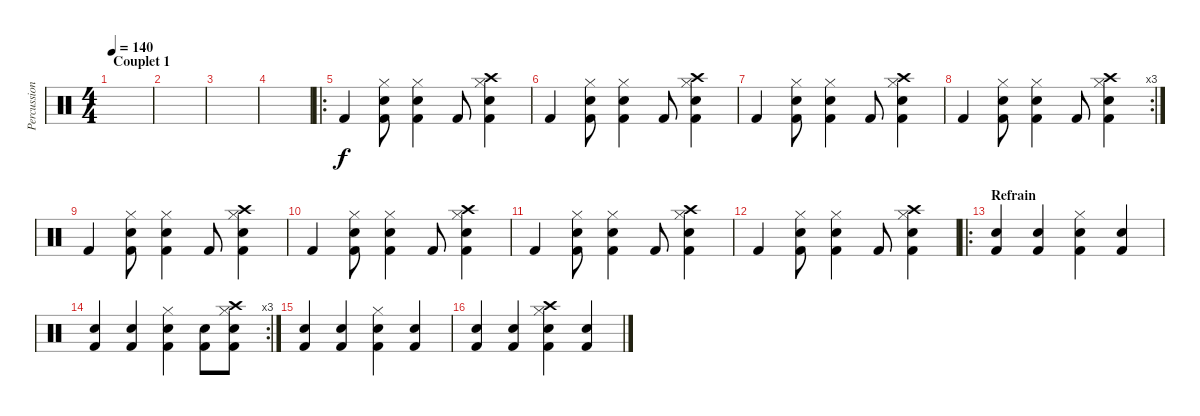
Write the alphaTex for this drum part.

\track ("Percussions" "Percussion") {instrument percussion}
\staff {score}
\articulation defaults
\ts (4 4)
\section ("" "Couplet 1")
\tempo 140
\clef neutral
\ks c
|
|
|
|
\ro "Kick (hit) 2".4
("Snare (hit) 2" "Kick (hit) 2" "Hi-Hat (closed)").8 ("Snare (hit) 2" "Kick (hit) 2" "Hi-Hat (closed)").4 "Kick (hit) 2".8 ("Snare (hit) 2" "Kick (hit) 2" "Hi-Hat (closed)" "Crash high (hit)").4 |
"Kick (hit) 2".4 ("Snare (hit) 2" "Kick (hit) 2" "Hi-Hat (closed)").8 ("Snare (hit) 2" "Kick (hit) 2" "Hi-Hat (closed)").4 "Kick (hit) 2".8 ("Snare (hit) 2" "Kick (hit) 2" "Hi-Hat (closed)" "Crash high (hit)").4 |
"Kick (hit) 2".4 ("Snare (hit) 2" "Kick (hit) 2" "Hi-Hat (closed)").8 ("Snare (hit) 2" "Kick (hit) 2" "Hi-Hat (closed)").4 "Kick (hit) 2".8 ("Snare (hit) 2" "Kick (hit) 2" "Hi-Hat (closed)" "Crash high (hit)").4 |
\rc 3 "Kick (hit) 2".4
("Snare (hit) 2" "Kick (hit) 2" "Hi-Hat (closed)").8 ("Snare (hit) 2" "Kick (hit) 2" "Hi-Hat (closed)").4 "Kick (hit) 2".8 ("Snare (hit) 2" "Kick (hit) 2" "Hi-Hat (closed)" "Crash high (hit)").4 |
"Kick (hit) 2".4 ("Snare (hit) 2" "Kick (hit) 2" "Hi-Hat (closed)").8 ("Snare (hit) 2" "Kick (hit) 2" "Hi-Hat (closed)").4 "Kick (hit) 2".8 ("Snare (hit) 2" "Kick (hit) 2" "Hi-Hat (closed)" "Crash high (hit)").4 |
"Kick (hit) 2".4 ("Snare (hit) 2" "Kick (hit) 2" "Hi-Hat (closed)").8 ("Snare (hit) 2" "Kick (hit) 2" "Hi-Hat (closed)").4 "Kick (hit) 2".8 ("Snare (hit) 2" "Kick (hit) 2" "Hi-Hat (closed)" "Crash high (hit)").4 |
"Kick (hit) 2".4 ("Snare (hit) 2" "Kick (hit) 2" "Hi-Hat (closed)").8 ("Snare (hit) 2" "Kick (hit) 2" "Hi-Hat (closed)").4 "Kick (hit) 2".8 ("Snare (hit) 2" "Kick (hit) 2" "Hi-Hat (closed)" "Crash high (hit)").4 |
"Kick (hit) 2".4 ("Snare (hit) 2" "Kick (hit) 2" "Hi-Hat (closed)").8 ("Snare (hit) 2" "Kick (hit) 2" "Hi-Hat (closed)").4 "Kick (hit) 2".8 ("Snare (hit) 2" "Kick (hit) 2" "Hi-Hat (closed)" "Crash high (hit)").4 |
\ro
\section ("" "Refrain")
("Snare (hit) 2" "Kick (hit) 2").4 ("Snare (hit) 2" "Kick (hit) 2").4 ("Snare (hit) 2" "Kick (hit) 2" "Hi-Hat (closed)").4 ("Snare (hit) 2" "Kick (hit) 2").4 |
\rc 3
("Snare (hit) 2" "Kick (hit) 2").4 ("Snare (hit) 2" "Kick (hit) 2").4 ("Snare (hit) 2" "Kick (hit) 2" "Hi-Hat (closed)").4 ("Snare (hit) 2" "Kick (hit) 2").8 ("Snare (hit) 2" "Kick (hit) 2" "Hi-Hat (closed)" "Crash high (hit)").8 |
("Snare (hit) 2" "Kick (hit) 2").4 ("Snare (hit) 2" "Kick (hit) 2").4 ("Snare (hit) 2" "Kick (hit) 2" "Hi-Hat (closed)").4 ("Snare (hit) 2" "Kick (hit) 2").4 |
("Snare (hit) 2" "Kick (hit) 2").4 ("Snare (hit) 2" "Kick (hit) 2").4 ("Snare (hit) 2" "Kick (hit) 2" "Hi-Hat (closed)" "Crash high (hit)").4 ("Snare (hit) 2" "Kick (hit) 2").4
